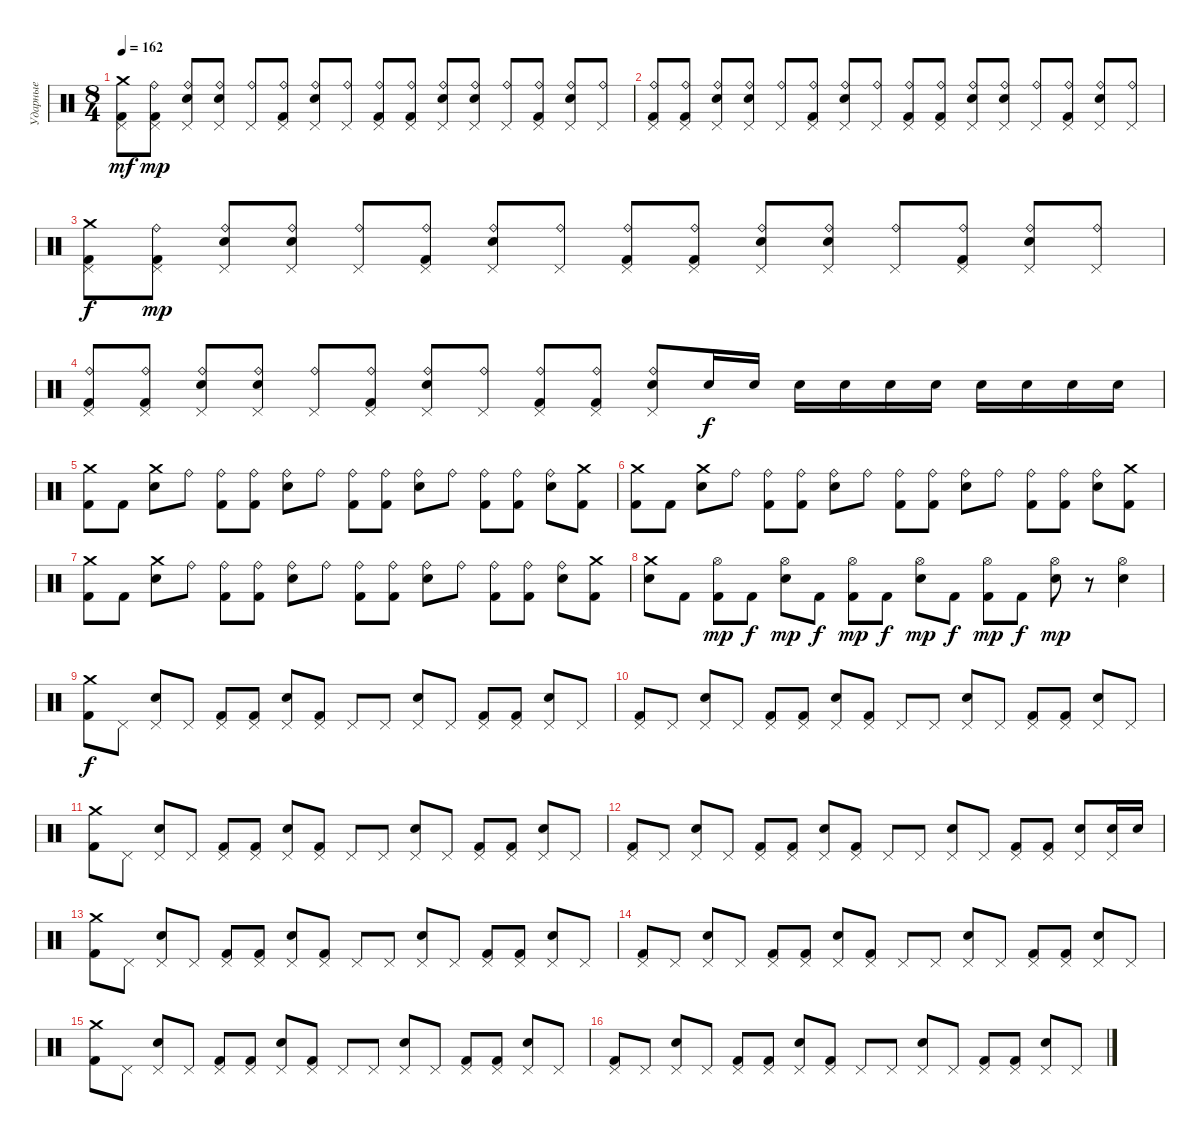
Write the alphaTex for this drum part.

\track ("Ударные" "Ударные") {instrument percussion}
\staff {score}
\articulation defaults
\ts (8 4)
\tempo 162
\clef neutral
\ks c
("Crash medium (hit)" "Pedal Hi-Hat (hit)" "Kick (hit) 2").8{dy mf} ("Ride (bell)" "Pedal Hi-Hat (hit)" "Kick (hit) 2").8{dy mp} ("Ride (bell)" "Pedal Hi-Hat (hit)" "Snare (hit) 2").8 ("Ride (bell)" "Pedal Hi-Hat (hit)" "Snare (hit) 2").8 ("Ride (bell)" "Pedal Hi-Hat (hit)").8 ("Ride (bell)" "Pedal Hi-Hat (hit)" "Kick (hit) 2").8 ("Ride (bell)" "Pedal Hi-Hat (hit)" "Snare (hit) 2").8 ("Ride (bell)" "Pedal Hi-Hat (hit)").8 ("Ride (bell)" "Pedal Hi-Hat (hit)" "Kick (hit) 2").8 ("Ride (bell)" "Pedal Hi-Hat (hit)" "Kick (hit) 2").8 ("Ride (bell)" "Pedal Hi-Hat (hit)" "Snare (hit) 2").8 ("Ride (bell)" "Pedal Hi-Hat (hit)" "Snare (hit) 2").8 ("Ride (bell)" "Pedal Hi-Hat (hit)").8 ("Ride (bell)" "Pedal Hi-Hat (hit)" "Kick (hit) 2").8 ("Ride (bell)" "Pedal Hi-Hat (hit)" "Snare (hit) 2").8 ("Ride (bell)" "Pedal Hi-Hat (hit)").8 |
("Ride (bell)" "Pedal Hi-Hat (hit)" "Kick (hit) 2").8 ("Ride (bell)" "Pedal Hi-Hat (hit)" "Kick (hit) 2").8 ("Ride (bell)" "Pedal Hi-Hat (hit)" "Snare (hit) 2").8 ("Ride (bell)" "Pedal Hi-Hat (hit)" "Snare (hit) 2").8 ("Ride (bell)" "Pedal Hi-Hat (hit)").8 ("Ride (bell)" "Pedal Hi-Hat (hit)" "Kick (hit) 2").8 ("Ride (bell)" "Pedal Hi-Hat (hit)" "Snare (hit) 2").8 ("Ride (bell)" "Pedal Hi-Hat (hit)").8 ("Ride (bell)" "Pedal Hi-Hat (hit)" "Kick (hit) 2").8 ("Ride (bell)" "Pedal Hi-Hat (hit)" "Kick (hit) 2").8 ("Ride (bell)" "Pedal Hi-Hat (hit)" "Snare (hit) 2").8 ("Ride (bell)" "Pedal Hi-Hat (hit)" "Snare (hit) 2").8 ("Ride (bell)" "Pedal Hi-Hat (hit)").8 ("Ride (bell)" "Pedal Hi-Hat (hit)" "Kick (hit) 2").8 ("Ride (bell)" "Pedal Hi-Hat (hit)" "Snare (hit) 2").8 ("Ride (bell)" "Pedal Hi-Hat (hit)").8 |
("Crash medium (hit)" "Pedal Hi-Hat (hit)" "Kick (hit) 2").8{dy f} ("Ride (bell)" "Pedal Hi-Hat (hit)" "Kick (hit) 2").8{dy mp} ("Ride (bell)" "Pedal Hi-Hat (hit)" "Snare (hit) 2").8 ("Ride (bell)" "Pedal Hi-Hat (hit)" "Snare (hit) 2").8 ("Ride (bell)" "Pedal Hi-Hat (hit)").8 ("Ride (bell)" "Pedal Hi-Hat (hit)" "Kick (hit) 2").8 ("Ride (bell)" "Pedal Hi-Hat (hit)" "Snare (hit) 2").8 ("Ride (bell)" "Pedal Hi-Hat (hit)").8 ("Ride (bell)" "Pedal Hi-Hat (hit)" "Kick (hit) 2").8 ("Ride (bell)" "Pedal Hi-Hat (hit)" "Kick (hit) 2").8 ("Ride (bell)" "Pedal Hi-Hat (hit)" "Snare (hit) 2").8 ("Ride (bell)" "Pedal Hi-Hat (hit)" "Snare (hit) 2").8 ("Ride (bell)" "Pedal Hi-Hat (hit)").8 ("Ride (bell)" "Pedal Hi-Hat (hit)" "Kick (hit) 2").8 ("Ride (bell)" "Pedal Hi-Hat (hit)" "Snare (hit) 2").8 ("Ride (bell)" "Pedal Hi-Hat (hit)").8 |
("Ride (bell)" "Pedal Hi-Hat (hit)" "Kick (hit) 2").8 ("Ride (bell)" "Pedal Hi-Hat (hit)" "Kick (hit) 2").8 ("Ride (bell)" "Pedal Hi-Hat (hit)" "Snare (hit) 2").8 ("Ride (bell)" "Pedal Hi-Hat (hit)" "Snare (hit) 2").8 ("Ride (bell)" "Pedal Hi-Hat (hit)").8 ("Ride (bell)" "Pedal Hi-Hat (hit)" "Kick (hit) 2").8 ("Ride (bell)" "Pedal Hi-Hat (hit)" "Snare (hit) 2").8 ("Ride (bell)" "Pedal Hi-Hat (hit)").8 ("Ride (bell)" "Pedal Hi-Hat (hit)" "Kick (hit) 2").8 ("Ride (bell)" "Pedal Hi-Hat (hit)" "Kick (hit) 2").8 ("Ride (bell)" "Pedal Hi-Hat (hit)" "Snare (hit) 2").8 "Snare (hit) 2".16{dy f} "Snare (hit) 2".16 "Snare (hit) 2".16 "Snare (hit) 2".16 "Snare (hit) 2".16 "Snare (hit) 2".16 "Snare (hit) 2".16 "Snare (hit) 2".16 "Snare (hit) 2".16 "Snare (hit) 2".16 |
("Crash medium (hit)" "Kick (hit) 2").8 "Kick (hit) 2".8 ("Crash medium (hit)" "Snare (hit) 2").8 "Ride (bell)".8 ("Ride (bell)" "Kick (hit) 2").8 ("Ride (bell)" "Kick (hit) 2").8 ("Ride (bell)" "Snare (hit) 2").8 "Ride (bell)".8 ("Ride (bell)" "Kick (hit) 2").8 ("Ride (bell)" "Kick (hit) 2").8 ("Ride (bell)" "Snare (hit) 2").8 "Ride (bell)".8 ("Ride (bell)" "Kick (hit) 2").8 ("Ride (bell)" "Kick (hit) 2").8 ("Ride (bell)" "Snare (hit) 2").8 ("Crash medium (hit)" "Kick (hit) 2").8 |
("Crash medium (hit)" "Kick (hit) 2").8 "Kick (hit) 2".8 ("Crash medium (hit)" "Snare (hit) 2").8 "Ride (bell)".8 ("Ride (bell)" "Kick (hit) 2").8 ("Ride (bell)" "Kick (hit) 2").8 ("Ride (bell)" "Snare (hit) 2").8 "Ride (bell)".8 ("Ride (bell)" "Kick (hit) 2").8 ("Ride (bell)" "Kick (hit) 2").8 ("Ride (bell)" "Snare (hit) 2").8 "Ride (bell)".8 ("Ride (bell)" "Kick (hit) 2").8 ("Ride (bell)" "Kick (hit) 2").8 ("Ride (bell)" "Snare (hit) 2").8 ("Crash medium (hit)" "Kick (hit) 2").8 |
("Crash medium (hit)" "Kick (hit) 2").8 "Kick (hit) 2".8 ("Crash medium (hit)" "Snare (hit) 2").8 "Ride (bell)".8 ("Ride (bell)" "Kick (hit) 2").8 ("Ride (bell)" "Kick (hit) 2").8 ("Ride (bell)" "Snare (hit) 2").8 "Ride (bell)".8 ("Ride (bell)" "Kick (hit) 2").8 ("Ride (bell)" "Kick (hit) 2").8 ("Ride (bell)" "Snare (hit) 2").8 "Ride (bell)".8 ("Ride (bell)" "Kick (hit) 2").8 ("Ride (bell)" "Kick (hit) 2").8 ("Ride (bell)" "Snare (hit) 2").8 ("Crash medium (hit)" "Kick (hit) 2").8 |
("Crash medium (hit)" "Snare (hit) 2").8 "Kick (hit) 2".8 ("Hi-Hat (open)" "Kick (hit) 2").8{dy mp} "Kick (hit) 2".8{dy f} ("Hi-Hat (open)" "Snare (hit) 2").8{dy mp} "Kick (hit) 2".8{dy f} ("Hi-Hat (open)" "Kick (hit) 2").8{dy mp} "Kick (hit) 2".8{dy f} ("Hi-Hat (open)" "Snare (hit) 2").8{dy mp} "Kick (hit) 2".8{dy f} ("Hi-Hat (open)" "Kick (hit) 2").8{dy mp} "Kick (hit) 2".8{dy f} ("Hi-Hat (open)" "Snare (hit) 2").8{dy mp} r.8 ("Hi-Hat (open)" "Snare (hit) 2").4 |
("Crash medium (hit)" "Kick (hit) 2").8{dy f} "Pedal Hi-Hat (hit)".8 ("Pedal Hi-Hat (hit)" "Snare (hit) 2").8 "Pedal Hi-Hat (hit)".8 ("Pedal Hi-Hat (hit)" "Kick (hit) 2").8 ("Pedal Hi-Hat (hit)" "Kick (hit) 2").8 ("Pedal Hi-Hat (hit)" "Snare (hit) 2").8 ("Pedal Hi-Hat (hit)" "Kick (hit) 2").8 "Pedal Hi-Hat (hit)".8 "Pedal Hi-Hat (hit)".8 ("Pedal Hi-Hat (hit)" "Snare (hit) 2").8 "Pedal Hi-Hat (hit)".8 ("Pedal Hi-Hat (hit)" "Kick (hit) 2").8 ("Pedal Hi-Hat (hit)" "Kick (hit) 2").8 ("Pedal Hi-Hat (hit)" "Snare (hit) 2").8 "Pedal Hi-Hat (hit)".8 |
("Pedal Hi-Hat (hit)" "Kick (hit) 2").8 "Pedal Hi-Hat (hit)".8 ("Pedal Hi-Hat (hit)" "Snare (hit) 2").8 "Pedal Hi-Hat (hit)".8 ("Pedal Hi-Hat (hit)" "Kick (hit) 2").8 ("Pedal Hi-Hat (hit)" "Kick (hit) 2").8 ("Pedal Hi-Hat (hit)" "Snare (hit) 2").8 ("Pedal Hi-Hat (hit)" "Kick (hit) 2").8 "Pedal Hi-Hat (hit)".8 "Pedal Hi-Hat (hit)".8 ("Pedal Hi-Hat (hit)" "Snare (hit) 2").8 "Pedal Hi-Hat (hit)".8 ("Pedal Hi-Hat (hit)" "Kick (hit) 2").8 ("Pedal Hi-Hat (hit)" "Kick (hit) 2").8 ("Pedal Hi-Hat (hit)" "Snare (hit) 2").8 "Pedal Hi-Hat (hit)".8 |
("Crash medium (hit)" "Kick (hit) 2").8 "Pedal Hi-Hat (hit)".8 ("Pedal Hi-Hat (hit)" "Snare (hit) 2").8 "Pedal Hi-Hat (hit)".8 ("Pedal Hi-Hat (hit)" "Kick (hit) 2").8 ("Pedal Hi-Hat (hit)" "Kick (hit) 2").8 ("Pedal Hi-Hat (hit)" "Snare (hit) 2").8 ("Pedal Hi-Hat (hit)" "Kick (hit) 2").8 "Pedal Hi-Hat (hit)".8 "Pedal Hi-Hat (hit)".8 ("Pedal Hi-Hat (hit)" "Snare (hit) 2").8 "Pedal Hi-Hat (hit)".8 ("Pedal Hi-Hat (hit)" "Kick (hit) 2").8 ("Pedal Hi-Hat (hit)" "Kick (hit) 2").8 ("Pedal Hi-Hat (hit)" "Snare (hit) 2").8 "Pedal Hi-Hat (hit)".8 |
("Pedal Hi-Hat (hit)" "Kick (hit) 2").8 "Pedal Hi-Hat (hit)".8 ("Pedal Hi-Hat (hit)" "Snare (hit) 2").8 "Pedal Hi-Hat (hit)".8 ("Pedal Hi-Hat (hit)" "Kick (hit) 2").8 ("Pedal Hi-Hat (hit)" "Kick (hit) 2").8 ("Pedal Hi-Hat (hit)" "Snare (hit) 2").8 ("Pedal Hi-Hat (hit)" "Kick (hit) 2").8 "Pedal Hi-Hat (hit)".8 "Pedal Hi-Hat (hit)".8 ("Pedal Hi-Hat (hit)" "Snare (hit) 2").8 "Pedal Hi-Hat (hit)".8 ("Pedal Hi-Hat (hit)" "Kick (hit) 2").8 ("Pedal Hi-Hat (hit)" "Kick (hit) 2").8 ("Pedal Hi-Hat (hit)" "Snare (hit) 2").8 ("Pedal Hi-Hat (hit)" "Snare (hit) 2").16 "Snare (hit) 2".16 |
("Crash medium (hit)" "Kick (hit) 2").8 "Pedal Hi-Hat (hit)".8 ("Pedal Hi-Hat (hit)" "Snare (hit) 2").8 "Pedal Hi-Hat (hit)".8 ("Pedal Hi-Hat (hit)" "Kick (hit) 2").8 ("Pedal Hi-Hat (hit)" "Kick (hit) 2").8 ("Pedal Hi-Hat (hit)" "Snare (hit) 2").8 ("Pedal Hi-Hat (hit)" "Kick (hit) 2").8 "Pedal Hi-Hat (hit)".8 "Pedal Hi-Hat (hit)".8 ("Pedal Hi-Hat (hit)" "Snare (hit) 2").8 "Pedal Hi-Hat (hit)".8 ("Pedal Hi-Hat (hit)" "Kick (hit) 2").8 ("Pedal Hi-Hat (hit)" "Kick (hit) 2").8 ("Pedal Hi-Hat (hit)" "Snare (hit) 2").8 "Pedal Hi-Hat (hit)".8 |
("Pedal Hi-Hat (hit)" "Kick (hit) 2").8 "Pedal Hi-Hat (hit)".8 ("Pedal Hi-Hat (hit)" "Snare (hit) 2").8 "Pedal Hi-Hat (hit)".8 ("Pedal Hi-Hat (hit)" "Kick (hit) 2").8 ("Pedal Hi-Hat (hit)" "Kick (hit) 2").8 ("Pedal Hi-Hat (hit)" "Snare (hit) 2").8 ("Pedal Hi-Hat (hit)" "Kick (hit) 2").8 "Pedal Hi-Hat (hit)".8 "Pedal Hi-Hat (hit)".8 ("Pedal Hi-Hat (hit)" "Snare (hit) 2").8 "Pedal Hi-Hat (hit)".8 ("Pedal Hi-Hat (hit)" "Kick (hit) 2").8 ("Pedal Hi-Hat (hit)" "Kick (hit) 2").8 ("Pedal Hi-Hat (hit)" "Snare (hit) 2").8 "Pedal Hi-Hat (hit)".8 |
("Crash medium (hit)" "Kick (hit) 2").8 "Pedal Hi-Hat (hit)".8 ("Pedal Hi-Hat (hit)" "Snare (hit) 2").8 "Pedal Hi-Hat (hit)".8 ("Pedal Hi-Hat (hit)" "Kick (hit) 2").8 ("Pedal Hi-Hat (hit)" "Kick (hit) 2").8 ("Pedal Hi-Hat (hit)" "Snare (hit) 2").8 ("Pedal Hi-Hat (hit)" "Kick (hit) 2").8 "Pedal Hi-Hat (hit)".8 "Pedal Hi-Hat (hit)".8 ("Pedal Hi-Hat (hit)" "Snare (hit) 2").8 "Pedal Hi-Hat (hit)".8 ("Pedal Hi-Hat (hit)" "Kick (hit) 2").8 ("Pedal Hi-Hat (hit)" "Kick (hit) 2").8 ("Pedal Hi-Hat (hit)" "Snare (hit) 2").8 "Pedal Hi-Hat (hit)".8 |
("Pedal Hi-Hat (hit)" "Kick (hit) 2").8 "Pedal Hi-Hat (hit)".8 ("Pedal Hi-Hat (hit)" "Snare (hit) 2").8 "Pedal Hi-Hat (hit)".8 ("Pedal Hi-Hat (hit)" "Kick (hit) 2").8 ("Pedal Hi-Hat (hit)" "Kick (hit) 2").8 ("Pedal Hi-Hat (hit)" "Snare (hit) 2").8 ("Pedal Hi-Hat (hit)" "Kick (hit) 2").8 "Pedal Hi-Hat (hit)".8 "Pedal Hi-Hat (hit)".8 ("Pedal Hi-Hat (hit)" "Snare (hit) 2").8 "Pedal Hi-Hat (hit)".8 ("Pedal Hi-Hat (hit)" "Kick (hit) 2").8 ("Pedal Hi-Hat (hit)" "Kick (hit) 2").8 ("Pedal Hi-Hat (hit)" "Snare (hit) 2").8 "Pedal Hi-Hat (hit)".8
